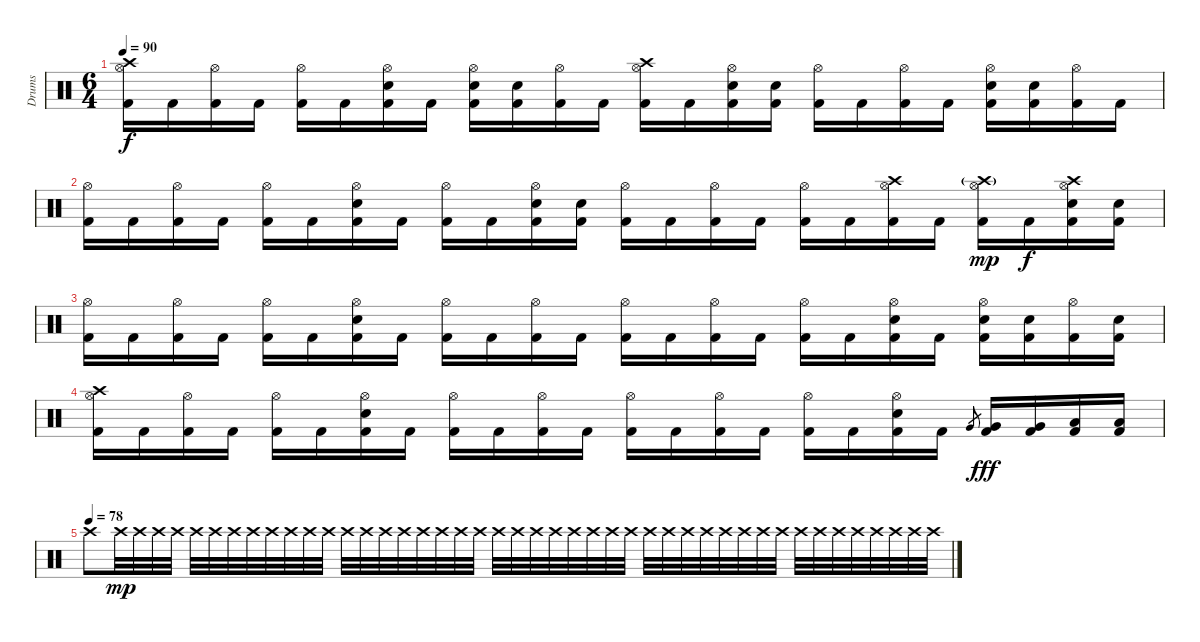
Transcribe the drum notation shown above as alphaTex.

\track ("Drums" "Drums") {instrument percussion}
\staff {score}
\articulation defaults
\ts (6 4)
\tempo 90
\clef neutral
\ks c
("Crash high (hit)" "Hi-Hat (open)" "Kick (hit) 2").16{dy f} "Kick (hit) 2".16 ("Hi-Hat (open)" "Kick (hit) 2").16 "Kick (hit) 2".16 ("Hi-Hat (open)" "Kick (hit) 2").16 "Kick (hit) 2".16 ("Hi-Hat (open)" "Snare (hit) 2" "Kick (hit) 2").16 "Kick (hit) 2".16 ("Hi-Hat (open)" "Snare (hit) 2" "Kick (hit) 2").16 ("Snare (hit) 2" "Kick (hit) 2").16 ("Hi-Hat (open)" "Kick (hit) 2").16 "Kick (hit) 2".16 ("Crash high (hit)" "Hi-Hat (open)" "Kick (hit) 2").16 "Kick (hit) 2".16 ("Hi-Hat (open)" "Snare (hit) 2" "Kick (hit) 2").16 ("Snare (hit) 2" "Kick (hit) 2").16 ("Hi-Hat (open)" "Kick (hit) 2").16 "Kick (hit) 2".16 ("Hi-Hat (open)" "Kick (hit) 2").16 "Kick (hit) 2".16 ("Hi-Hat (open)" "Snare (hit) 2" "Kick (hit) 2").16 ("Snare (hit) 2" "Kick (hit) 2").16 ("Hi-Hat (open)" "Kick (hit) 2").16 "Kick (hit) 2".16 |
("Hi-Hat (open)" "Kick (hit) 2").16 "Kick (hit) 2".16 ("Hi-Hat (open)" "Kick (hit) 2").16 "Kick (hit) 2".16 ("Hi-Hat (open)" "Kick (hit) 2").16 "Kick (hit) 2".16 ("Hi-Hat (open)" "Snare (hit) 2" "Kick (hit) 2").16 "Kick (hit) 2".16 ("Hi-Hat (open)" "Kick (hit) 2").16 "Kick (hit) 2".16 ("Hi-Hat (open)" "Snare (hit) 2" "Kick (hit) 2").16 ("Snare (hit) 2" "Kick (hit) 2").16 ("Hi-Hat (open)" "Kick (hit) 2").16 "Kick (hit) 2".16 ("Hi-Hat (open)" "Kick (hit) 2").16 "Kick (hit) 2".16 ("Hi-Hat (open)" "Kick (hit) 2").16 "Kick (hit) 2".16 ("Crash high (hit)" "Hi-Hat (open)" "Kick (hit) 2").16 "Kick (hit) 2".16 ("Crash high (hit)"{g} "Hi-Hat (open)" "Kick (hit) 2").16{dy mp} "Kick (hit) 2".16{dy f} ("Crash high (hit)" "Hi-Hat (open)" "Snare (hit) 2" "Kick (hit) 2").16 ("Snare (hit) 2" "Kick (hit) 2").16 |
("Hi-Hat (open)" "Kick (hit) 2").16 "Kick (hit) 2".16 ("Hi-Hat (open)" "Kick (hit) 2").16 "Kick (hit) 2".16 ("Hi-Hat (open)" "Kick (hit) 2").16 "Kick (hit) 2".16 ("Hi-Hat (open)" "Snare (hit) 2" "Kick (hit) 2").16 "Kick (hit) 2".16 ("Hi-Hat (open)" "Kick (hit) 2").16 "Kick (hit) 2".16 ("Hi-Hat (open)" "Kick (hit) 2").16 "Kick (hit) 2".16 ("Hi-Hat (open)" "Kick (hit) 2").16 "Kick (hit) 2".16 ("Hi-Hat (open)" "Kick (hit) 2").16 "Kick (hit) 2".16 ("Hi-Hat (open)" "Kick (hit) 2").16 "Kick (hit) 2".16 ("Hi-Hat (open)" "Snare (hit) 2" "Kick (hit) 2").16 "Kick (hit) 2".16 ("Hi-Hat (open)" "Snare (hit) 2" "Kick (hit) 2").16 ("Snare (hit) 2" "Kick (hit) 2").16 ("Hi-Hat (open)" "Kick (hit) 2").16 ("Snare (hit) 2" "Kick (hit) 2").16 |
("Crash high (hit)" "Hi-Hat (open)" "Kick (hit) 2").16 "Kick (hit) 2".16 ("Hi-Hat (open)" "Kick (hit) 2").16 "Kick (hit) 2".16 ("Hi-Hat (open)" "Kick (hit) 2").16 "Kick (hit) 2".16 ("Hi-Hat (open)" "Snare (hit) 2" "Kick (hit) 2").16 "Kick (hit) 2".16 ("Hi-Hat (open)" "Kick (hit) 2").16 "Kick (hit) 2".16 ("Hi-Hat (open)" "Kick (hit) 2").16 "Kick (hit) 2".16 ("Hi-Hat (open)" "Kick (hit) 2").16 "Kick (hit) 2".16 ("Hi-Hat (open)" "Kick (hit) 2").16 "Kick (hit) 2".16 ("Hi-Hat (open)" "Kick (hit) 2").16 "Kick (hit) 2".16 ("Hi-Hat (open)" "Snare (hit) 2" "Kick (hit) 2").16 "Kick (hit) 2".16 "Very Low Tom (hit)".8{gr} ("Very Low Tom (hit)" "Kick (hit) 2").16{dy fff} ("Very Low Tom (hit)" "Kick (hit) 2").16 ("Low Floor Tom (hit)" "Kick (hit) 2").16 ("Low Floor Tom (hit)" "Kick (hit) 2").16 |
\tempo (78)
"Crash high (hit)".8{volume 0} "Crash high (hit)".32{dy mp} "Crash high (hit)".32 "Crash high (hit)".32 "Crash high (hit)".32 "Crash high (hit)".32 "Crash high (hit)".32 "Crash high (hit)".32 "Crash high (hit)".32 "Crash high (hit)".32 "Crash high (hit)".32 "Crash high (hit)".32 "Crash high (hit)".32 "Crash high (hit)".32 "Crash high (hit)".32 "Crash high (hit)".32 "Crash high (hit)".32 "Crash high (hit)".32 "Crash high (hit)".32 "Crash high (hit)".32 "Crash high (hit)".32 "Crash high (hit)".32 "Crash high (hit)".32 "Crash high (hit)".32 "Crash high (hit)".32 "Crash high (hit)".32 "Crash high (hit)".32 "Crash high (hit)".32 "Crash high (hit)".32 "Crash high (hit)".32 "Crash high (hit)".32 "Crash high (hit)".32 "Crash high (hit)".32 "Crash high (hit)".32 "Crash high (hit)".32 "Crash high (hit)".32 "Crash high (hit)".32 "Crash high (hit)".32 "Crash high (hit)".32 "Crash high (hit)".32 "Crash high (hit)".32 "Crash high (hit)".32 "Crash high (hit)".32 "Crash high (hit)".32 "Crash high (hit)".32
